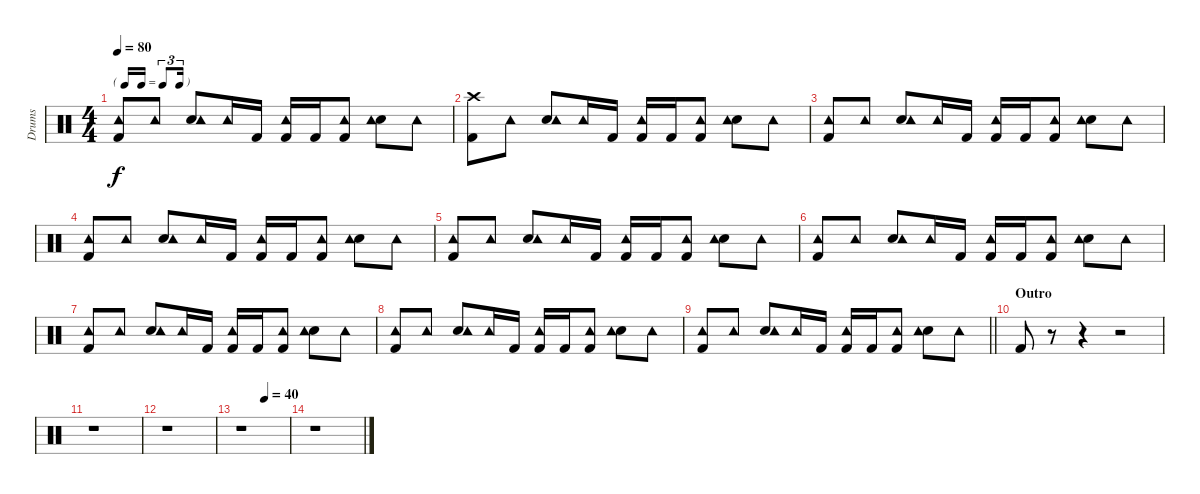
\track ("Drums" "Drums") {instrument percussion}
\staff {score}
\articulation defaults
\ts (4 4)
\tf triplet16th
\tempo 80
\clef neutral
\ks c
("Tambourine (hit)" "Kick (hit) 2").8{dy f} "Tambourine (hit)".8 ("Electric Snare (hit)" "Tambourine (hit)").8 "Tambourine (hit)".16 "Kick (hit) 2".16 ("Kick (hit) 2" "Tambourine (hit)").16 "Kick (hit) 2".16 ("Kick (hit) 2" "Tambourine (hit)").8 ("Electric Snare (hit)" "Tambourine (hit)").8 "Tambourine (hit)".8 |
("Crash high (hit)" "Kick (hit) 2").8 "Tambourine (hit)".8 ("Electric Snare (hit)" "Tambourine (hit)").8 "Tambourine (hit)".16 "Kick (hit) 2".16 ("Kick (hit) 2" "Tambourine (hit)").16 "Kick (hit) 2".16 ("Kick (hit) 2" "Tambourine (hit)").8 ("Electric Snare (hit)" "Tambourine (hit)").8 "Tambourine (hit)".8 |
("Tambourine (hit)" "Kick (hit) 2").8 "Tambourine (hit)".8 ("Electric Snare (hit)" "Tambourine (hit)").8 "Tambourine (hit)".16 "Kick (hit) 2".16 ("Kick (hit) 2" "Tambourine (hit)").16 "Kick (hit) 2".16 ("Kick (hit) 2" "Tambourine (hit)").8 ("Electric Snare (hit)" "Tambourine (hit)").8 "Tambourine (hit)".8 |
("Tambourine (hit)" "Kick (hit) 2").8 "Tambourine (hit)".8 ("Electric Snare (hit)" "Tambourine (hit)").8 "Tambourine (hit)".16 "Kick (hit) 2".16 ("Kick (hit) 2" "Tambourine (hit)").16 "Kick (hit) 2".16 ("Kick (hit) 2" "Tambourine (hit)").8 ("Electric Snare (hit)" "Tambourine (hit)").8 "Tambourine (hit)".8 |
("Tambourine (hit)" "Kick (hit) 2").8 "Tambourine (hit)".8 ("Electric Snare (hit)" "Tambourine (hit)").8 "Tambourine (hit)".16 "Kick (hit) 2".16 ("Kick (hit) 2" "Tambourine (hit)").16 "Kick (hit) 2".16 ("Kick (hit) 2" "Tambourine (hit)").8 ("Electric Snare (hit)" "Tambourine (hit)").8 "Tambourine (hit)".8 |
("Tambourine (hit)" "Kick (hit) 2").8 "Tambourine (hit)".8 ("Electric Snare (hit)" "Tambourine (hit)").8 "Tambourine (hit)".16 "Kick (hit) 2".16 ("Kick (hit) 2" "Tambourine (hit)").16 "Kick (hit) 2".16 ("Kick (hit) 2" "Tambourine (hit)").8 ("Electric Snare (hit)" "Tambourine (hit)").8 "Tambourine (hit)".8 |
("Tambourine (hit)" "Kick (hit) 2").8 "Tambourine (hit)".8 ("Electric Snare (hit)" "Tambourine (hit)").8 "Tambourine (hit)".16 "Kick (hit) 2".16 ("Kick (hit) 2" "Tambourine (hit)").16 "Kick (hit) 2".16 ("Kick (hit) 2" "Tambourine (hit)").8 ("Electric Snare (hit)" "Tambourine (hit)").8 "Tambourine (hit)".8 |
("Tambourine (hit)" "Kick (hit) 2").8 "Tambourine (hit)".8 ("Electric Snare (hit)" "Tambourine (hit)").8 "Tambourine (hit)".16 "Kick (hit) 2".16 ("Kick (hit) 2" "Tambourine (hit)").16 "Kick (hit) 2".16 ("Kick (hit) 2" "Tambourine (hit)").8 ("Electric Snare (hit)" "Tambourine (hit)").8 "Tambourine (hit)".8 |
\barLineRight lightlight
("Tambourine (hit)" "Kick (hit) 2").8 "Tambourine (hit)".8 ("Electric Snare (hit)" "Tambourine (hit)").8 "Tambourine (hit)".16 "Kick (hit) 2".16 ("Kick (hit) 2" "Tambourine (hit)").16 "Kick (hit) 2".16 ("Kick (hit) 2" "Tambourine (hit)").8 ("Electric Snare (hit)" "Tambourine (hit)").8 "Tambourine (hit)".8 |
\section ("" "Outro")
"Kick (hit) 2".8 r.8 r.4 r.2 |
r.1 |
r.1 |
\tempo (40 0.5)
r.1 |
r.1
